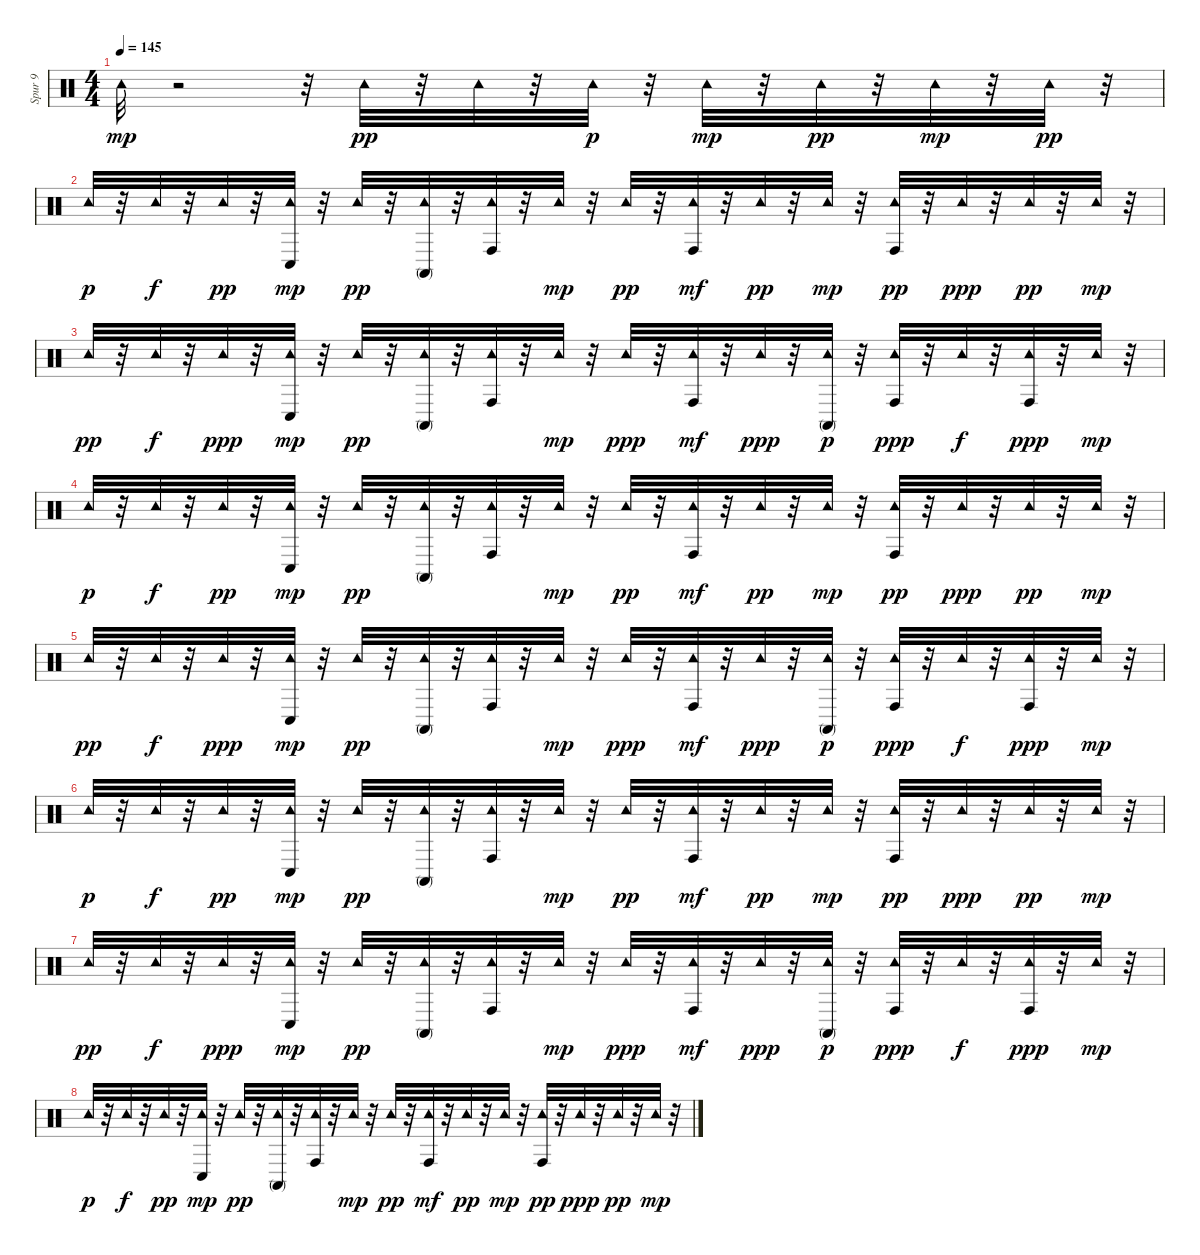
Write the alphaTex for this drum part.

\track ("Spur 9" "Spur 9") {instrument percussion}
\staff {score}
\articulation defaults
\ts (4 4)
\tempo 145
\clef neutral
\ks c "Tambourine (hit)".32{dy mp}
r.2 r.32 "Tambourine (hit)".32{dy pp} r.32 "Tambourine (hit)".32 r.32 "Tambourine (hit)".32{dy p} r.32 "Tambourine (hit)".32{dy mp} r.32 "Tambourine (hit)".32{dy pp} r.32 "Tambourine (hit)".32{dy mp} r.32 "Tambourine (hit)".32{dy pp} r.32 |
"Tambourine (hit)".32{dy p} r.32 "Tambourine (hit)".32{dy f} r.32 "Tambourine (hit)".32{dy pp} r.32 ("Tambourine (hit)" "Conga low (hit)").32{dy mp} r.32 "Tambourine (hit)".32{dy pp} r.32 ("Tambourine (hit)" "Conga high (mute)").32 r.32 ("Conga high (hit)" "Tambourine (hit)").32 r.32 "Tambourine (hit)".32{dy mp} r.32 "Tambourine (hit)".32{dy pp} r.32 ("Tambourine (hit)" "Conga high (hit)").32{dy mf} r.32 "Tambourine (hit)".32{dy pp} r.32 "Tambourine (hit)".32{dy mp} r.32 ("Conga high (hit)" "Tambourine (hit)").32{dy pp} r.32 "Tambourine (hit)".32{dy ppp} r.32 "Tambourine (hit)".32{dy pp} r.32 "Tambourine (hit)".32{dy mp} r.32 |
"Tambourine (hit)".32{dy pp} r.32 "Tambourine (hit)".32{dy f} r.32 "Tambourine (hit)".32{dy ppp} r.32 ("Tambourine (hit)" "Conga low (hit)").32{dy mp} r.32 "Tambourine (hit)".32{dy pp} r.32 ("Tambourine (hit)" "Conga high (mute)").32 r.32 ("Conga high (hit)" "Tambourine (hit)").32 r.32 "Tambourine (hit)".32{dy mp} r.32 "Tambourine (hit)".32{dy ppp} r.32 ("Tambourine (hit)" "Conga high (hit)").32{dy mf} r.32 "Tambourine (hit)".32{dy ppp} r.32 ("Tambourine (hit)" "Conga high (mute)").32{dy p} r.32 ("Conga high (hit)" "Tambourine (hit)").32{dy ppp} r.32 "Tambourine (hit)".32{dy f} r.32 ("Conga high (hit)" "Tambourine (hit)").32{dy ppp} r.32 "Tambourine (hit)".32{dy mp} r.32 |
"Tambourine (hit)".32{dy p} r.32 "Tambourine (hit)".32{dy f} r.32 "Tambourine (hit)".32{dy pp} r.32 ("Tambourine (hit)" "Conga low (hit)").32{dy mp} r.32 "Tambourine (hit)".32{dy pp} r.32 ("Tambourine (hit)" "Conga high (mute)").32 r.32 ("Conga high (hit)" "Tambourine (hit)").32 r.32 "Tambourine (hit)".32{dy mp} r.32 "Tambourine (hit)".32{dy pp} r.32 ("Tambourine (hit)" "Conga high (hit)").32{dy mf} r.32 "Tambourine (hit)".32{dy pp} r.32 "Tambourine (hit)".32{dy mp} r.32 ("Conga high (hit)" "Tambourine (hit)").32{dy pp} r.32 "Tambourine (hit)".32{dy ppp} r.32 "Tambourine (hit)".32{dy pp} r.32 "Tambourine (hit)".32{dy mp} r.32 |
"Tambourine (hit)".32{dy pp} r.32 "Tambourine (hit)".32{dy f} r.32 "Tambourine (hit)".32{dy ppp} r.32 ("Tambourine (hit)" "Conga low (hit)").32{dy mp} r.32 "Tambourine (hit)".32{dy pp} r.32 ("Tambourine (hit)" "Conga high (mute)").32 r.32 ("Conga high (hit)" "Tambourine (hit)").32 r.32 "Tambourine (hit)".32{dy mp} r.32 "Tambourine (hit)".32{dy ppp} r.32 ("Tambourine (hit)" "Conga high (hit)").32{dy mf} r.32 "Tambourine (hit)".32{dy ppp} r.32 ("Tambourine (hit)" "Conga high (mute)").32{dy p} r.32 ("Conga high (hit)" "Tambourine (hit)").32{dy ppp} r.32 "Tambourine (hit)".32{dy f} r.32 ("Conga high (hit)" "Tambourine (hit)").32{dy ppp} r.32 "Tambourine (hit)".32{dy mp} r.32 |
"Tambourine (hit)".32{dy p} r.32 "Tambourine (hit)".32{dy f} r.32 "Tambourine (hit)".32{dy pp} r.32 ("Tambourine (hit)" "Conga low (hit)").32{dy mp} r.32 "Tambourine (hit)".32{dy pp} r.32 ("Tambourine (hit)" "Conga high (mute)").32 r.32 ("Conga high (hit)" "Tambourine (hit)").32 r.32 "Tambourine (hit)".32{dy mp} r.32 "Tambourine (hit)".32{dy pp} r.32 ("Tambourine (hit)" "Conga high (hit)").32{dy mf} r.32 "Tambourine (hit)".32{dy pp} r.32 "Tambourine (hit)".32{dy mp} r.32 ("Conga high (hit)" "Tambourine (hit)").32{dy pp} r.32 "Tambourine (hit)".32{dy ppp} r.32 "Tambourine (hit)".32{dy pp} r.32 "Tambourine (hit)".32{dy mp} r.32 |
"Tambourine (hit)".32{dy pp} r.32 "Tambourine (hit)".32{dy f} r.32 "Tambourine (hit)".32{dy ppp} r.32 ("Tambourine (hit)" "Conga low (hit)").32{dy mp} r.32 "Tambourine (hit)".32{dy pp} r.32 ("Tambourine (hit)" "Conga high (mute)").32 r.32 ("Conga high (hit)" "Tambourine (hit)").32 r.32 "Tambourine (hit)".32{dy mp} r.32 "Tambourine (hit)".32{dy ppp} r.32 ("Tambourine (hit)" "Conga high (hit)").32{dy mf} r.32 "Tambourine (hit)".32{dy ppp} r.32 ("Tambourine (hit)" "Conga high (mute)").32{dy p} r.32 ("Conga high (hit)" "Tambourine (hit)").32{dy ppp} r.32 "Tambourine (hit)".32{dy f} r.32 ("Conga high (hit)" "Tambourine (hit)").32{dy ppp} r.32 "Tambourine (hit)".32{dy mp} r.32 |
"Tambourine (hit)".32{dy p} r.32 "Tambourine (hit)".32{dy f} r.32 "Tambourine (hit)".32{dy pp} r.32 ("Tambourine (hit)" "Conga low (hit)").32{dy mp} r.32 "Tambourine (hit)".32{dy pp} r.32 ("Tambourine (hit)" "Conga high (mute)").32 r.32 ("Conga high (hit)" "Tambourine (hit)").32 r.32 "Tambourine (hit)".32{dy mp} r.32 "Tambourine (hit)".32{dy pp} r.32 ("Tambourine (hit)" "Conga high (hit)").32{dy mf} r.32 "Tambourine (hit)".32{dy pp} r.32 "Tambourine (hit)".32{dy mp} r.32 ("Conga high (hit)" "Tambourine (hit)").32{dy pp} r.32 "Tambourine (hit)".32{dy ppp} r.32 "Tambourine (hit)".32{dy pp} r.32 "Tambourine (hit)".32{dy mp} r.32
